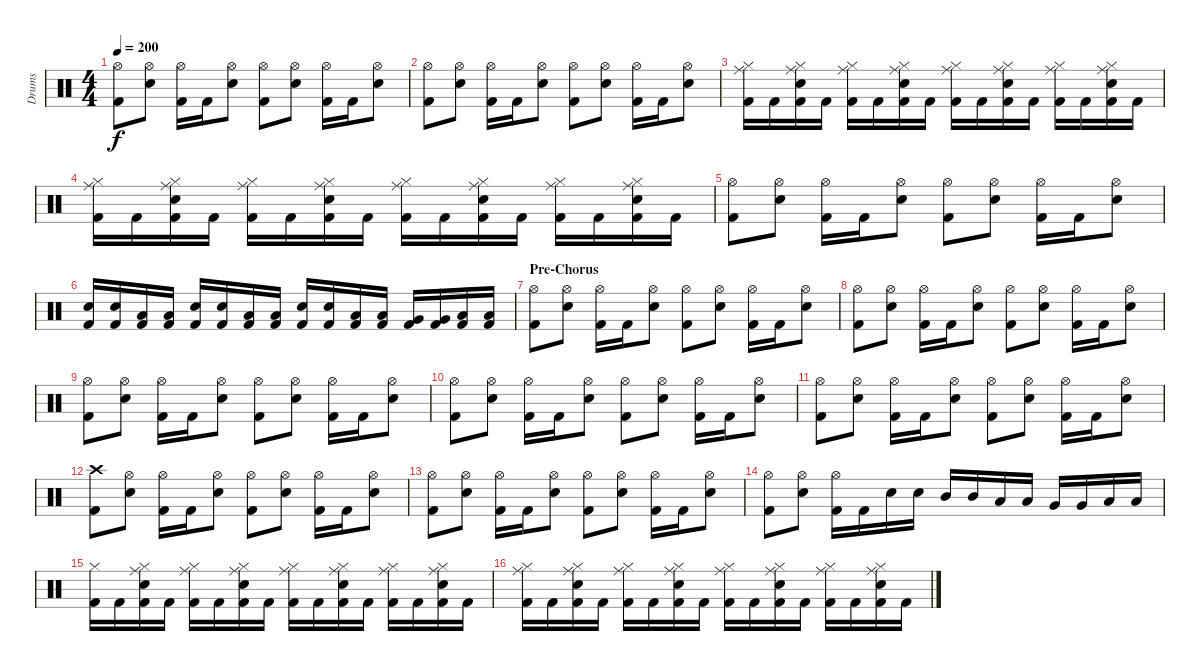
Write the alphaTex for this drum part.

\track ("Drums" "Drums") {instrument percussion}
\staff {score}
\articulation defaults
\ts (4 4)
\tempo 200
\clef neutral
\ks c
("Hi-Hat (open)" "Kick (hit) 2").8{dy f} ("Hi-Hat (open)" "Snare (hit) 2").8 ("Hi-Hat (open)" "Kick (hit) 2").16 "Kick (hit) 2".16 ("Hi-Hat (open)" "Snare (hit) 2").8 ("Hi-Hat (open)" "Kick (hit) 2").8 ("Hi-Hat (open)" "Snare (hit) 2").8 ("Hi-Hat (open)" "Kick (hit) 2").16 "Kick (hit) 2".16 ("Hi-Hat (open)" "Snare (hit) 2").8 |
("Hi-Hat (open)" "Kick (hit) 2").8 ("Hi-Hat (open)" "Snare (hit) 2").8 ("Hi-Hat (open)" "Kick (hit) 2").16 "Kick (hit) 2".16 ("Hi-Hat (open)" "Snare (hit) 2").8 ("Hi-Hat (open)" "Kick (hit) 2").8 ("Hi-Hat (open)" "Snare (hit) 2").8 ("Hi-Hat (open)" "Kick (hit) 2").16 "Kick (hit) 2".16 ("Hi-Hat (open)" "Snare (hit) 2").8 |
("Hi-Hat (closed)" "Ride (middle)" "Kick (hit) 2").16 "Kick (hit) 2".16 ("Hi-Hat (closed)" "Ride (middle)" "Snare (hit) 2" "Kick (hit) 2").16 "Kick (hit) 2".16 ("Hi-Hat (closed)" "Ride (middle)" "Kick (hit) 2").16 "Kick (hit) 2".16 ("Hi-Hat (closed)" "Ride (middle)" "Snare (hit) 2" "Kick (hit) 2").16 "Kick (hit) 2".16 ("Hi-Hat (closed)" "Ride (middle)" "Kick (hit) 2").16 "Kick (hit) 2".16 ("Hi-Hat (closed)" "Ride (middle)" "Snare (hit) 2" "Kick (hit) 2").16 "Kick (hit) 2".16 ("Hi-Hat (closed)" "Ride (middle)" "Kick (hit) 2").16 "Kick (hit) 2".16 ("Hi-Hat (closed)" "Ride (middle)" "Snare (hit) 2" "Kick (hit) 2").16 "Kick (hit) 2".16 |
("Hi-Hat (closed)" "Ride (middle)" "Kick (hit) 2").16 "Kick (hit) 2".16 ("Hi-Hat (closed)" "Ride (middle)" "Snare (hit) 2" "Kick (hit) 2").16 "Kick (hit) 2".16 ("Hi-Hat (closed)" "Ride (middle)" "Kick (hit) 2").16 "Kick (hit) 2".16 ("Hi-Hat (closed)" "Ride (middle)" "Snare (hit) 2" "Kick (hit) 2").16 "Kick (hit) 2".16 ("Hi-Hat (closed)" "Ride (middle)" "Kick (hit) 2").16 "Kick (hit) 2".16 ("Hi-Hat (closed)" "Ride (middle)" "Snare (hit) 2" "Kick (hit) 2").16 "Kick (hit) 2".16 ("Hi-Hat (closed)" "Ride (middle)" "Kick (hit) 2").16 "Kick (hit) 2".16 ("Hi-Hat (closed)" "Ride (middle)" "Snare (hit) 2" "Kick (hit) 2").16 "Kick (hit) 2".16 |
("Hi-Hat (open)" "Kick (hit) 2").8 ("Hi-Hat (open)" "Snare (hit) 2").8 ("Hi-Hat (open)" "Kick (hit) 2").16 "Kick (hit) 2".16 ("Hi-Hat (open)" "Snare (hit) 2").8 ("Hi-Hat (open)" "Kick (hit) 2").8 ("Hi-Hat (open)" "Snare (hit) 2").8 ("Hi-Hat (open)" "Kick (hit) 2").16 "Kick (hit) 2".16 ("Hi-Hat (open)" "Snare (hit) 2").8 |
("Snare (hit) 2" "Kick (hit) 2").16 ("Snare (hit) 2" "Kick (hit) 2").16 ("Low Floor Tom (hit)" "Kick (hit) 2").16 ("Low Floor Tom (hit)" "Kick (hit) 2").16 ("Snare (hit) 2" "Kick (hit) 2").16 ("Snare (hit) 2" "Kick (hit) 2").16 ("Low Floor Tom (hit)" "Kick (hit) 2").16 ("Low Floor Tom (hit)" "Kick (hit) 2").16 ("Snare (hit) 2" "Kick (hit) 2").16 ("Snare (hit) 2" "Kick (hit) 2").16 ("Low Tom (hit)" "Kick (hit) 2").16 ("Low Tom (hit)" "Kick (hit) 2").16 ("Very Low Tom (hit)" "Kick (hit) 2").16 ("Very Low Tom (hit)" "Kick (hit) 2").16 ("Low Floor Tom (hit)" "Kick (hit) 2").16 ("Low Floor Tom (hit)" "Kick (hit) 2").16 |
\section ("" "Pre-Chorus")
("Hi-Hat (open)" "Kick (hit) 2").8 ("Hi-Hat (open)" "Snare (hit) 2").8 ("Hi-Hat (open)" "Kick (hit) 2").16 "Kick (hit) 2".16 ("Hi-Hat (open)" "Snare (hit) 2").8 ("Hi-Hat (open)" "Kick (hit) 2").8 ("Hi-Hat (open)" "Snare (hit) 2").8 ("Hi-Hat (open)" "Kick (hit) 2").16 "Kick (hit) 2".16 ("Hi-Hat (open)" "Snare (hit) 2").8 |
("Hi-Hat (open)" "Kick (hit) 2").8 ("Hi-Hat (open)" "Snare (hit) 2").8 ("Hi-Hat (open)" "Kick (hit) 2").16 "Kick (hit) 2".16 ("Hi-Hat (open)" "Snare (hit) 2").8 ("Hi-Hat (open)" "Kick (hit) 2").8 ("Hi-Hat (open)" "Snare (hit) 2").8 ("Hi-Hat (open)" "Kick (hit) 2").16 "Kick (hit) 2".16 ("Hi-Hat (open)" "Snare (hit) 2").8 |
("Hi-Hat (open)" "Kick (hit) 2").8 ("Hi-Hat (open)" "Snare (hit) 2").8 ("Hi-Hat (open)" "Kick (hit) 2").16 "Kick (hit) 2".16 ("Hi-Hat (open)" "Snare (hit) 2").8 ("Hi-Hat (open)" "Kick (hit) 2").8 ("Hi-Hat (open)" "Snare (hit) 2").8 ("Hi-Hat (open)" "Kick (hit) 2").16 "Kick (hit) 2".16 ("Hi-Hat (open)" "Snare (hit) 2").8 |
("Hi-Hat (open)" "Kick (hit) 2").8 ("Hi-Hat (open)" "Snare (hit) 2").8 ("Hi-Hat (open)" "Kick (hit) 2").16 "Kick (hit) 2".16 ("Hi-Hat (open)" "Snare (hit) 2").8 ("Hi-Hat (open)" "Kick (hit) 2").8 ("Hi-Hat (open)" "Snare (hit) 2").8 ("Hi-Hat (open)" "Kick (hit) 2").16 "Kick (hit) 2".16 ("Hi-Hat (open)" "Snare (hit) 2").8 |
("Hi-Hat (open)" "Kick (hit) 2").8 ("Hi-Hat (open)" "Snare (hit) 2").8 ("Hi-Hat (open)" "Kick (hit) 2").16 "Kick (hit) 2".16 ("Hi-Hat (open)" "Snare (hit) 2").8 ("Hi-Hat (open)" "Kick (hit) 2").8 ("Hi-Hat (open)" "Snare (hit) 2").8 ("Hi-Hat (open)" "Kick (hit) 2").16 "Kick (hit) 2".16 ("Hi-Hat (open)" "Snare (hit) 2").8 |
("Crash high (hit)" "Kick (hit) 2").8 ("Hi-Hat (open)" "Snare (hit) 2").8 ("Hi-Hat (open)" "Kick (hit) 2").16 "Kick (hit) 2".16 ("Hi-Hat (open)" "Snare (hit) 2").8 ("Hi-Hat (open)" "Kick (hit) 2").8 ("Hi-Hat (open)" "Snare (hit) 2").8 ("Hi-Hat (open)" "Kick (hit) 2").16 "Kick (hit) 2".16 ("Hi-Hat (open)" "Snare (hit) 2").8 |
("Hi-Hat (open)" "Kick (hit) 2").8 ("Hi-Hat (open)" "Snare (hit) 2").8 ("Hi-Hat (open)" "Kick (hit) 2").16 "Kick (hit) 2".16 ("Hi-Hat (open)" "Snare (hit) 2").8 ("Hi-Hat (open)" "Kick (hit) 2").8 ("Hi-Hat (open)" "Snare (hit) 2").8 ("Hi-Hat (open)" "Kick (hit) 2").16 "Kick (hit) 2".16 ("Hi-Hat (open)" "Snare (hit) 2").8 |
("Hi-Hat (open)" "Kick (hit) 2").8 ("Hi-Hat (open)" "Snare (hit) 2").8 ("Hi-Hat (open)" "Kick (hit) 2").16 "Kick (hit) 2".16 "Snare (hit) 2".16 "Snare (hit) 2".16 "Mid Tom (hit)".16 "Mid Tom (hit)".16 "Low Tom (hit)".16 "Low Tom (hit)".16 "Very Low Tom (hit)".16 "Very Low Tom (hit)".16 "Low Floor Tom (hit)".16 "Low Floor Tom (hit)".16 |
("Hi-Hat (closed)" "Kick (hit) 2").16 "Kick (hit) 2".16 ("Hi-Hat (closed)" "Ride (middle)" "Snare (hit) 2" "Kick (hit) 2").16 "Kick (hit) 2".16 ("Hi-Hat (closed)" "Ride (middle)" "Kick (hit) 2").16 "Kick (hit) 2".16 ("Hi-Hat (closed)" "Ride (middle)" "Snare (hit) 2" "Kick (hit) 2").16 "Kick (hit) 2".16 ("Hi-Hat (closed)" "Ride (middle)" "Kick (hit) 2").16 "Kick (hit) 2".16 ("Hi-Hat (closed)" "Ride (middle)" "Snare (hit) 2" "Kick (hit) 2").16 "Kick (hit) 2".16 ("Hi-Hat (closed)" "Ride (middle)" "Kick (hit) 2").16 "Kick (hit) 2".16 ("Hi-Hat (closed)" "Ride (middle)" "Snare (hit) 2" "Kick (hit) 2").16 "Kick (hit) 2".16 |
("Hi-Hat (closed)" "Ride (middle)" "Kick (hit) 2").16 "Kick (hit) 2".16 ("Hi-Hat (closed)" "Ride (middle)" "Snare (hit) 2" "Kick (hit) 2").16 "Kick (hit) 2".16 ("Hi-Hat (closed)" "Ride (middle)" "Kick (hit) 2").16 "Kick (hit) 2".16 ("Hi-Hat (closed)" "Ride (middle)" "Snare (hit) 2" "Kick (hit) 2").16 "Kick (hit) 2".16 ("Hi-Hat (closed)" "Ride (middle)" "Kick (hit) 2").16 "Kick (hit) 2".16 ("Hi-Hat (closed)" "Ride (middle)" "Snare (hit) 2" "Kick (hit) 2").16 "Kick (hit) 2".16 ("Hi-Hat (closed)" "Ride (middle)" "Kick (hit) 2").16 "Kick (hit) 2".16 ("Hi-Hat (closed)" "Ride (middle)" "Snare (hit) 2" "Kick (hit) 2").16 "Kick (hit) 2".16
